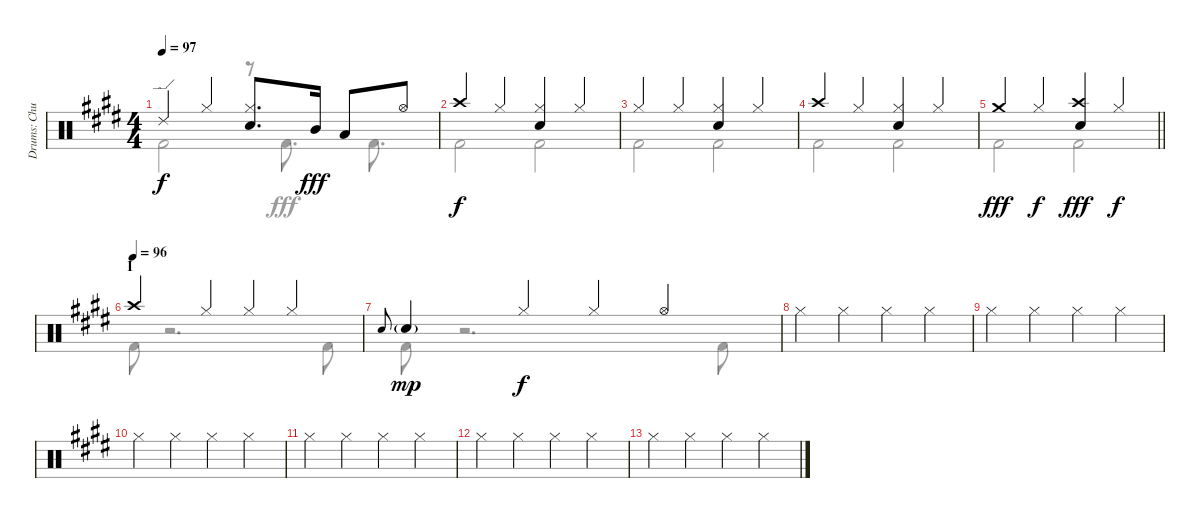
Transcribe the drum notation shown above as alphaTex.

\track ("Drums: Chuck" "Drums: Chu") {instrument percussion}
\staff {score}
\articulation defaults
\voice
\ts (4 4)
\tempo 97
\clef neutral
\ks e "Ride (edge) 2".4{dy f} "Hi-Hat (closed)".4
("Hi-Hat (closed)" "Snare (hit) 2").8{d} "Mid Tom (hit)".16{dy fff} "Low Tom (hit)".8 "Hi-Hat (open)".8 |
"Crash high (hit)".4{dy f} "Hi-Hat (closed)".4 ("Hi-Hat (closed)" "Snare (hit) 2").4 "Hi-Hat (closed)".4 |
"Hi-Hat (closed)".4 "Hi-Hat (closed)".4 ("Hi-Hat (closed)" "Snare (hit) 2").4 "Hi-Hat (closed)".4 |
"Crash high (hit)".4 "Hi-Hat (closed)".4 ("Hi-Hat (closed)" "Snare (hit) 2").4 "Hi-Hat (closed)".4 |
\barLineRight lightlight "Crash medium (hit)".4{dy fff} "Hi-Hat (closed)".4{dy f}
("Crash high (hit)" "Snare (hit) 2").4{dy fff} "Hi-Hat (closed)".4{dy f} |
\section ("" "I")
\tempo (96)
"Crash high (hit)".4 "Hi-Hat (closed)".4 "Hi-Hat (closed)".4 "Hi-Hat (closed)".4 |
"Electric Snare (hit)".8{gr onbeat} "Snare (hit) 2"{g}.4{dy mp} "Hi-Hat (closed)".4{dy f} "Hi-Hat (closed)".4 "Hi-Hat (open)".4 |
"Hi-Hat (closed)".4 "Hi-Hat (closed)".4 "Hi-Hat (closed)".4 "Hi-Hat (closed)".4 |
"Hi-Hat (closed)".4 "Hi-Hat (closed)".4 "Hi-Hat (closed)".4 "Hi-Hat (closed)".4 |
"Hi-Hat (closed)".4{volume 0} "Hi-Hat (closed)".4 "Hi-Hat (closed)".4 "Hi-Hat (closed)".4 |
"Hi-Hat (closed)".4 "Hi-Hat (closed)".4 "Hi-Hat (closed)".4 "Hi-Hat (closed)".4 |
"Hi-Hat (closed)".4 "Hi-Hat (closed)".4 "Hi-Hat (closed)".4 "Hi-Hat (closed)".4 |
"Hi-Hat (closed)".4 "Hi-Hat (closed)".4 "Hi-Hat (closed)".4 "Hi-Hat (closed)".4
\voice
\clef neutral
\ottava regular
\simile none
\ks e "Kick (hit) 2".2{dy f}
r.8 "Kick (hit) 2".8{d dy fff} "Kick (hit) 2".8{d} |
"Kick (hit) 2".2{dy f} "Kick (hit) 2".2 |
"Kick (hit) 2".2 "Kick (hit) 2".2 |
"Kick (hit) 2".2 "Kick (hit) 2".2 |
\barLineRight lightlight "Kick (hit) 2".2 "Kick (hit) 2".2
|
"Kick (hit) 2".8 r.2{d} "Kick (hit) 2".8 |
"Kick (hit) 2".8 r.2{d} "Kick (hit) 2".8 |
|
|
|
|
|
